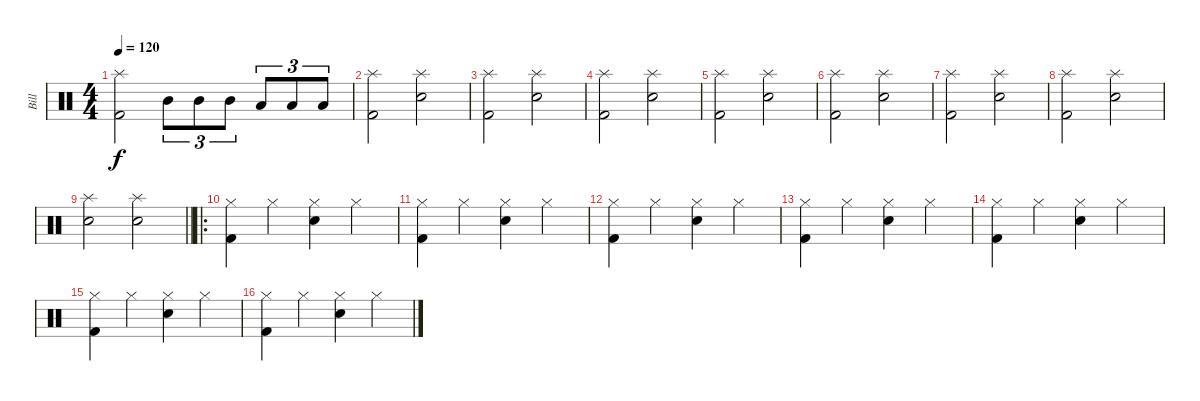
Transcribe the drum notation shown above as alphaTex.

\track ("Bill" "Bill") {instrument percussion}
\staff {score}
\articulation defaults
\ts (4 4)
\tempo 120
\clef neutral
\ks c
("Kick (hit) 2" "Splash (hit)").2{dy f} "Mid Tom (hit)".8{tu (3 2)} "Mid Tom (hit)".8{tu (3 2)} "Mid Tom (hit)".8{tu (3 2)} "Low Tom (hit)".8{tu (3 2)} "Low Tom (hit)".8{tu (3 2)} "Low Tom (hit)".8{tu (3 2)} |
("Kick (hit) 2" "Splash (hit)").2 ("Snare (hit) 2" "Splash (hit)").2 |
("Kick (hit) 2" "Splash (hit)").2 ("Snare (hit) 2" "Splash (hit)").2 |
("Kick (hit) 2" "Splash (hit)").2 ("Snare (hit) 2" "Splash (hit)").2 |
("Kick (hit) 2" "Splash (hit)").2 ("Snare (hit) 2" "Splash (hit)").2 |
("Kick (hit) 2" "Splash (hit)").2 ("Snare (hit) 2" "Splash (hit)").2 |
("Kick (hit) 2" "Splash (hit)").2 ("Snare (hit) 2" "Splash (hit)").2 |
("Kick (hit) 2" "Splash (hit)").2 ("Snare (hit) 2" "Splash (hit)").2 |
\barLineRight lightlight
("Snare (hit) 2" "Splash (hit)").2 ("Snare (hit) 2" "Splash (hit)").2 |
\ro
("Kick (hit) 2" "Hi-Hat (closed)").4 "Hi-Hat (closed)".4 ("Snare (hit) 2" "Hi-Hat (closed)").4 "Hi-Hat (closed)".4 |
("Kick (hit) 2" "Hi-Hat (closed)").4 "Hi-Hat (closed)".4 ("Snare (hit) 2" "Hi-Hat (closed)").4 "Hi-Hat (closed)".4 |
("Kick (hit) 2" "Hi-Hat (closed)").4 "Hi-Hat (closed)".4 ("Snare (hit) 2" "Hi-Hat (closed)").4 "Hi-Hat (closed)".4 |
("Kick (hit) 2" "Hi-Hat (closed)").4 "Hi-Hat (closed)".4 ("Snare (hit) 2" "Hi-Hat (closed)").4 "Hi-Hat (closed)".4 |
("Kick (hit) 2" "Hi-Hat (closed)").4 "Hi-Hat (closed)".4 ("Snare (hit) 2" "Hi-Hat (closed)").4 "Hi-Hat (closed)".4 |
("Kick (hit) 2" "Hi-Hat (closed)").4 "Hi-Hat (closed)".4 ("Snare (hit) 2" "Hi-Hat (closed)").4 "Hi-Hat (closed)".4 |
("Kick (hit) 2" "Hi-Hat (closed)").4 "Hi-Hat (closed)".4 ("Snare (hit) 2" "Hi-Hat (closed)").4 "Hi-Hat (closed)".4
